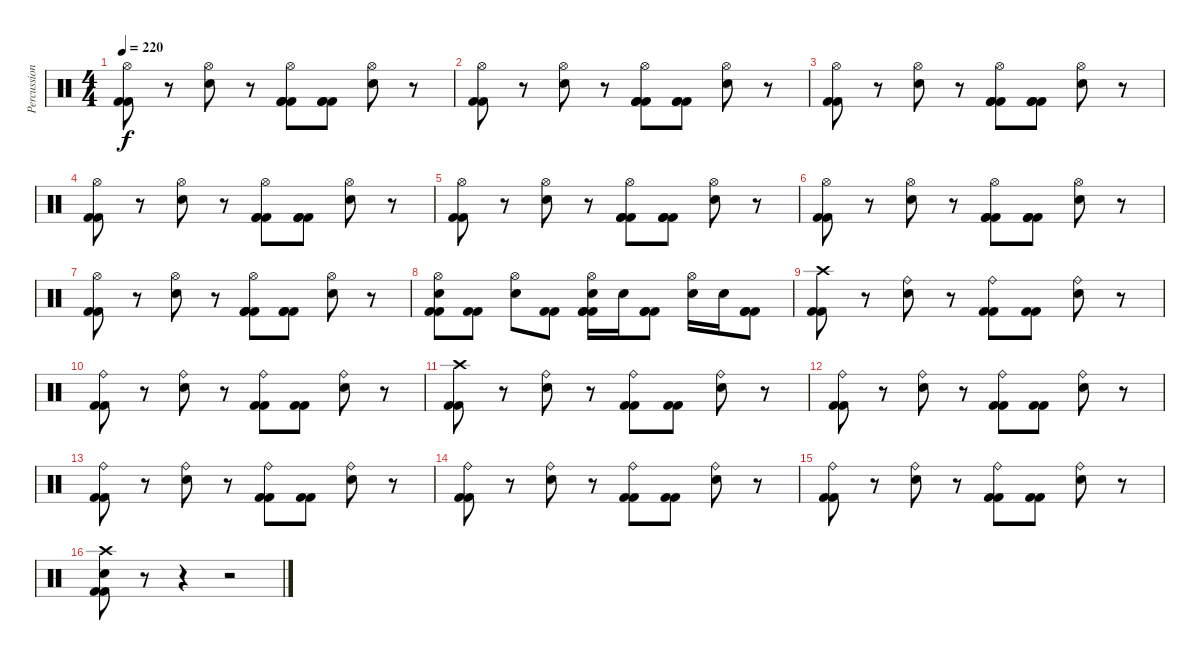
\track ("Percussion" "Percussion") {instrument percussion}
\staff {score}
\articulation defaults
\ts (4 4)
\tempo 220
\clef neutral
\ks c
("Hi-Hat (open)" "Kick (hit) 2" "Kick (hit) 2").8{dy f} r.8 ("Hi-Hat (open)" "Electric Snare (hit)").8 r.8 ("Hi-Hat (open)" "Kick (hit) 2" "Kick (hit) 2" "Kick (hit) 2").8 ("Kick (hit) 2" "Kick (hit) 2" "Kick (hit) 2").8 ("Hi-Hat (open)" "Electric Snare (hit)").8 r.8 |
("Hi-Hat (open)" "Kick (hit) 2" "Kick (hit) 2").8 r.8 ("Hi-Hat (open)" "Electric Snare (hit)").8 r.8 ("Hi-Hat (open)" "Kick (hit) 2" "Kick (hit) 2" "Kick (hit) 2").8 ("Kick (hit) 2" "Kick (hit) 2" "Kick (hit) 2").8 ("Hi-Hat (open)" "Electric Snare (hit)").8 r.8 |
("Hi-Hat (open)" "Kick (hit) 2" "Kick (hit) 2").8 r.8 ("Hi-Hat (open)" "Electric Snare (hit)").8 r.8 ("Hi-Hat (open)" "Kick (hit) 2" "Kick (hit) 2" "Kick (hit) 2").8 ("Kick (hit) 2" "Kick (hit) 2" "Kick (hit) 2").8 ("Hi-Hat (open)" "Electric Snare (hit)").8 r.8 |
("Hi-Hat (open)" "Kick (hit) 2" "Kick (hit) 2").8 r.8 ("Hi-Hat (open)" "Electric Snare (hit)").8 r.8 ("Hi-Hat (open)" "Kick (hit) 2" "Kick (hit) 2" "Kick (hit) 2").8 ("Kick (hit) 2" "Kick (hit) 2" "Kick (hit) 2").8 ("Hi-Hat (open)" "Electric Snare (hit)").8 r.8 |
("Hi-Hat (open)" "Kick (hit) 2" "Kick (hit) 2").8 r.8 ("Hi-Hat (open)" "Electric Snare (hit)").8 r.8 ("Hi-Hat (open)" "Kick (hit) 2" "Kick (hit) 2" "Kick (hit) 2").8 ("Kick (hit) 2" "Kick (hit) 2" "Kick (hit) 2").8 ("Hi-Hat (open)" "Electric Snare (hit)").8 r.8 |
("Hi-Hat (open)" "Kick (hit) 2" "Kick (hit) 2").8 r.8 ("Hi-Hat (open)" "Electric Snare (hit)").8 r.8 ("Hi-Hat (open)" "Kick (hit) 2" "Kick (hit) 2" "Kick (hit) 2").8 ("Kick (hit) 2" "Kick (hit) 2" "Kick (hit) 2").8 ("Hi-Hat (open)" "Electric Snare (hit)").8 r.8 |
("Hi-Hat (open)" "Kick (hit) 2" "Kick (hit) 2").8 r.8 ("Hi-Hat (open)" "Electric Snare (hit)").8 r.8 ("Hi-Hat (open)" "Kick (hit) 2" "Kick (hit) 2" "Kick (hit) 2").8 ("Kick (hit) 2" "Kick (hit) 2" "Kick (hit) 2").8 ("Hi-Hat (open)" "Electric Snare (hit)").8 r.8 |
("Hi-Hat (open)" "Electric Snare (hit)" "Kick (hit) 2" "Kick (hit) 2").8 ("Kick (hit) 2" "Kick (hit) 2").8 ("Hi-Hat (open)" "Electric Snare (hit)").8 ("Kick (hit) 2" "Kick (hit) 2").8 ("Hi-Hat (open)" "Electric Snare (hit)" "Kick (hit) 2" "Kick (hit) 2" "Kick (hit) 2").16 "Electric Snare (hit)".16 ("Kick (hit) 2" "Kick (hit) 2" "Kick (hit) 2").8 ("Hi-Hat (open)" "Electric Snare (hit)").16 "Electric Snare (hit)".16 ("Kick (hit) 2" "Kick (hit) 2" "Kick (hit) 2").8 |
("Crash high (hit)" "Kick (hit) 2" "Kick (hit) 2").8 r.8 ("Ride (bell)" "Electric Snare (hit)").8 r.8 ("Ride (bell)" "Kick (hit) 2" "Kick (hit) 2").8 ("Kick (hit) 2" "Kick (hit) 2").8 ("Ride (bell)" "Electric Snare (hit)").8 r.8 |
("Ride (bell)" "Kick (hit) 2" "Kick (hit) 2").8 r.8 ("Ride (bell)" "Electric Snare (hit)").8 r.8 ("Ride (bell)" "Kick (hit) 2" "Kick (hit) 2").8 ("Kick (hit) 2" "Kick (hit) 2").8 ("Ride (bell)" "Electric Snare (hit)").8 r.8 |
("Crash high (hit)" "Kick (hit) 2" "Kick (hit) 2").8 r.8 ("Ride (bell)" "Electric Snare (hit)").8 r.8 ("Ride (bell)" "Kick (hit) 2" "Kick (hit) 2").8 ("Kick (hit) 2" "Kick (hit) 2").8 ("Ride (bell)" "Electric Snare (hit)").8 r.8 |
("Ride (bell)" "Kick (hit) 2" "Kick (hit) 2").8 r.8 ("Ride (bell)" "Electric Snare (hit)").8 r.8 ("Ride (bell)" "Kick (hit) 2" "Kick (hit) 2").8 ("Kick (hit) 2" "Kick (hit) 2").8 ("Ride (bell)" "Electric Snare (hit)").8 r.8 |
("Ride (bell)" "Kick (hit) 2" "Kick (hit) 2").8 r.8 ("Ride (bell)" "Electric Snare (hit)").8 r.8 ("Ride (bell)" "Kick (hit) 2" "Kick (hit) 2").8 ("Kick (hit) 2" "Kick (hit) 2").8 ("Ride (bell)" "Electric Snare (hit)").8 r.8 |
("Ride (bell)" "Kick (hit) 2" "Kick (hit) 2").8 r.8 ("Ride (bell)" "Electric Snare (hit)").8 r.8 ("Ride (bell)" "Kick (hit) 2" "Kick (hit) 2").8 ("Kick (hit) 2" "Kick (hit) 2").8 ("Ride (bell)" "Electric Snare (hit)").8 r.8 |
("Ride (bell)" "Kick (hit) 2" "Kick (hit) 2").8 r.8 ("Ride (bell)" "Electric Snare (hit)").8 r.8 ("Ride (bell)" "Kick (hit) 2" "Kick (hit) 2").8 ("Kick (hit) 2" "Kick (hit) 2").8 ("Ride (bell)" "Electric Snare (hit)").8 r.8 |
("Crash high (hit)" "Electric Snare (hit)" "Kick (hit) 2" "Kick (hit) 2").8 r.8 r.4 r.2
